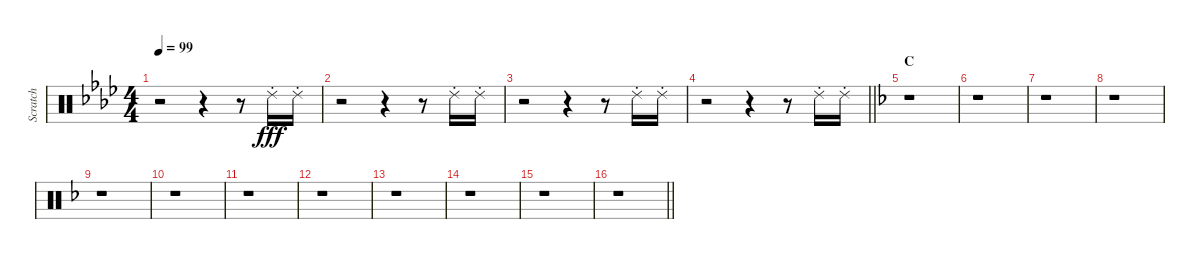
\track ("Scratch" "Scratch") {instrument percussion}
\staff {score}
\articulation defaults
\ts (4 4)
\tempo 99
\clef neutral
\ks ab
r.2{dy fff} r.4 r.8 "Ride (choke) 2".16 "Ride (choke) 2".16 |
r.2 r.4 r.8 "Ride (choke) 2".16 "Ride (choke) 2".16 |
r.2 r.4 r.8 "Ride (choke) 2".16 "Ride (choke) 2".16 |
\barLineRight lightlight
r.2 r.4 r.8 "Ride (choke) 2".16 "Ride (choke) 2".16 |
\section ("" "C")
\ks f
r.1 |
r.1 |
r.1 |
r.1 |
r.1 |
r.1 |
r.1 |
r.1 |
r.1 |
r.1 |
r.1 |
\barLineRight lightlight
r.1
